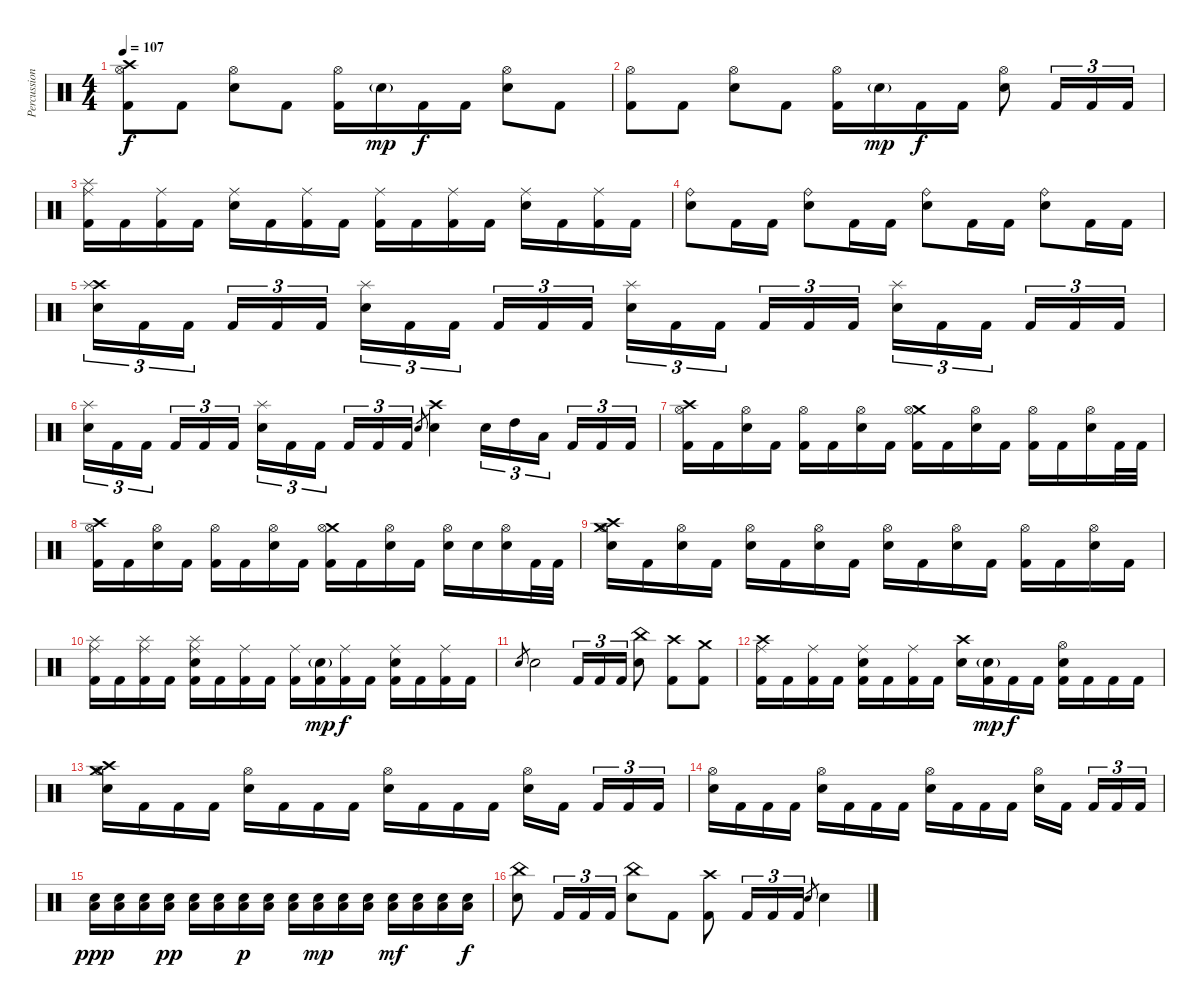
\track ("Percussion" "Percussion") {instrument percussion}
\staff {score}
\articulation defaults
\ts (4 4)
\tempo 107
\clef neutral
\ks c
("Crash high (hit)" "Hi-Hat (open)" "Kick (hit) 2").8{dy f} "Kick (hit) 2".8 ("Hi-Hat (open)" "Electric Snare (hit)").8 "Kick (hit) 2".8 ("Hi-Hat (open)" "Kick (hit) 2").16 "Electric Snare (hit)"{g}.16{dy mp} "Kick (hit) 2".16{dy f} "Kick (hit) 2".16 ("Hi-Hat (open)" "Electric Snare (hit)").8 "Kick (hit) 2".8 |
("Hi-Hat (open)" "Kick (hit) 2").8 "Kick (hit) 2".8 ("Hi-Hat (open)" "Electric Snare (hit)").8 "Kick (hit) 2".8 ("Hi-Hat (open)" "Kick (hit) 2").16 "Electric Snare (hit)"{g}.16{dy mp} "Kick (hit) 2".16{dy f} "Kick (hit) 2".16 ("Hi-Hat (open)" "Electric Snare (hit)").8 "Kick (hit) 2".16{tu (3 2)} "Kick (hit) 2".16{tu (3 2)} "Kick (hit) 2".16{tu (3 2)} |
("Splash (hit)" "Ride (middle)" "Kick (hit) 2").16 "Kick (hit) 2".16 ("Ride (middle)" "Kick (hit) 2").16 "Kick (hit) 2".16 ("Ride (middle)" "Electric Snare (hit)").16 "Kick (hit) 2".16 ("Ride (middle)" "Kick (hit) 2").16 "Kick (hit) 2".16 ("Ride (middle)" "Kick (hit) 2").16 "Kick (hit) 2".16 ("Ride (middle)" "Kick (hit) 2").16 "Kick (hit) 2".16 ("Ride (middle)" "Electric Snare (hit)").16 "Kick (hit) 2".16 ("Ride (middle)" "Kick (hit) 2").16 "Kick (hit) 2".16 |
("Ride (bell)" "Electric Snare (hit)").8 "Kick (hit) 2".16 "Kick (hit) 2".16 ("Ride (bell)" "Electric Snare (hit)").8 "Kick (hit) 2".16 "Kick (hit) 2".16 ("Ride (bell)" "Electric Snare (hit)").8 "Kick (hit) 2".16 "Kick (hit) 2".16 ("Ride (bell)" "Electric Snare (hit)").8 "Kick (hit) 2".16 "Kick (hit) 2".16 |
("Crash high (hit)" "Splash (hit)" "Electric Snare (hit)").16{tu (3 2)} "Kick (hit) 2".16{tu (3 2)} "Kick (hit) 2".16{tu (3 2)} "Kick (hit) 2".16{tu (3 2)} "Kick (hit) 2".16{tu (3 2)} "Kick (hit) 2".16{tu (3 2)} ("Splash (hit)" "Electric Snare (hit)").16{tu (3 2)} "Kick (hit) 2".16{tu (3 2)} "Kick (hit) 2".16{tu (3 2)} "Kick (hit) 2".16{tu (3 2)} "Kick (hit) 2".16{tu (3 2)} "Kick (hit) 2".16{tu (3 2)} ("Splash (hit)" "Electric Snare (hit)").16{tu (3 2)} "Kick (hit) 2".16{tu (3 2)} "Kick (hit) 2".16{tu (3 2)} "Kick (hit) 2".16{tu (3 2)} "Kick (hit) 2".16{tu (3 2)} "Kick (hit) 2".16{tu (3 2)} ("Splash (hit)" "Electric Snare (hit)").16{tu (3 2)} "Kick (hit) 2".16{tu (3 2)} "Kick (hit) 2".16{tu (3 2)} "Kick (hit) 2".16{tu (3 2)} "Kick (hit) 2".16{tu (3 2)} "Kick (hit) 2".16{tu (3 2)} |
("Splash (hit)" "Electric Snare (hit)").16{tu (3 2)} "Kick (hit) 2".16{tu (3 2)} "Kick (hit) 2".16{tu (3 2)} "Kick (hit) 2".16{tu (3 2)} "Kick (hit) 2".16{tu (3 2)} "Kick (hit) 2".16{tu (3 2)} ("Splash (hit)" "Electric Snare (hit)").16{tu (3 2)} "Kick (hit) 2".16{tu (3 2)} "Kick (hit) 2".16{tu (3 2)} "Kick (hit) 2".16{tu (3 2)} "Kick (hit) 2".16{tu (3 2)} "Kick (hit) 2".16{tu (3 2)} "Electric Snare (hit)".8{gr} ("Crash high (hit)" "Electric Snare (hit)").4 "Electric Snare (hit)".16{tu (3 2)} "High Tom (hit)".16{tu (3 2)} "Low Tom (hit)".16{tu (3 2)} "Kick (hit) 2".16{tu (3 2)} "Kick (hit) 2".16{tu (3 2)} "Kick (hit) 2".16{tu (3 2)} |
("Crash high (hit)" "Hi-Hat (open)" "Kick (hit) 2").16 "Kick (hit) 2".16 ("Hi-Hat (open)" "Electric Snare (hit)").16 "Kick (hit) 2".16 ("Hi-Hat (open)" "Kick (hit) 2").16 "Kick (hit) 2".16 ("Hi-Hat (open)" "Electric Snare (hit)").16 "Kick (hit) 2".16 ("Crash medium (hit)" "Hi-Hat (open)" "Kick (hit) 2").16 "Kick (hit) 2".16 ("Hi-Hat (open)" "Electric Snare (hit)").16 "Kick (hit) 2".16 ("Hi-Hat (open)" "Kick (hit) 2").16 "Kick (hit) 2".16 ("Hi-Hat (open)" "Electric Snare (hit)").16 "Kick (hit) 2".32 "Kick (hit) 2".32 |
("Crash high (hit)" "Hi-Hat (open)" "Kick (hit) 2").16 "Kick (hit) 2".16 ("Hi-Hat (open)" "Electric Snare (hit)").16 "Kick (hit) 2".16 ("Hi-Hat (open)" "Kick (hit) 2").16 "Kick (hit) 2".16 ("Hi-Hat (open)" "Electric Snare (hit)").16 "Kick (hit) 2".16 ("Crash medium (hit)" "Hi-Hat (open)" "Kick (hit) 2").16 "Kick (hit) 2".16 ("Hi-Hat (open)" "Electric Snare (hit)").16 "Kick (hit) 2".16 ("Hi-Hat (open)" "Electric Snare (hit)").16 "Electric Snare (hit)".16 ("Hi-Hat (open)" "Electric Snare (hit)").16 "Kick (hit) 2".32 "Kick (hit) 2".32 |
("Crash medium (hit)" "Crash high (hit)" "Hi-Hat (open)" "Electric Snare (hit)").16 "Kick (hit) 2".16 ("Hi-Hat (open)" "Electric Snare (hit)").16 "Kick (hit) 2".16 ("Hi-Hat (open)" "Electric Snare (hit)").16 "Kick (hit) 2".16 ("Hi-Hat (open)" "Electric Snare (hit)").16 "Kick (hit) 2".16 ("Hi-Hat (open)" "Electric Snare (hit)").16 "Kick (hit) 2".16 ("Hi-Hat (open)" "Electric Snare (hit)").16 "Kick (hit) 2".16 ("Hi-Hat (open)" "Kick (hit) 2").16 "Kick (hit) 2".16 ("Hi-Hat (open)" "Electric Snare (hit)").16 "Kick (hit) 2".16 |
("Ride (middle)" "Splash (hit)" "Kick (hit) 2").16 "Kick (hit) 2".16 ("Ride (middle)" "Splash (hit)" "Kick (hit) 2").16 "Kick (hit) 2".16 ("Ride (middle)" "Splash (hit)" "Kick (hit) 2" "Electric Snare (hit)").16 "Kick (hit) 2".16 ("Ride (middle)" "Kick (hit) 2").16 "Kick (hit) 2".16 ("Ride (middle)" "Kick (hit) 2").16 ("Kick (hit) 2" "Electric Snare (hit)"{g}).16{dy mp} ("Ride (middle)" "Kick (hit) 2").16{dy f} "Kick (hit) 2".16 ("Ride (middle)" "Kick (hit) 2" "Electric Snare (hit)").16 "Kick (hit) 2".16 ("Ride (middle)" "Kick (hit) 2").16 "Kick (hit) 2".16 |
"Electric Snare (hit)".8{gr} "Electric Snare (hit)".2 "Kick (hit) 2".16{tu (3 2)} "Kick (hit) 2".16{tu (3 2)} "Kick (hit) 2".16{tu (3 2)} ("China (hit)" "Electric Snare (hit)").8 ("Crash high (hit)" "Kick (hit) 2").8 ("Crash medium (hit)" "Kick (hit) 2").8 |
("Ride (middle)" "Crash high (hit)" "Kick (hit) 2").16 "Kick (hit) 2".16 ("Ride (middle)" "Kick (hit) 2").16 "Kick (hit) 2".16 ("Ride (middle)" "Kick (hit) 2" "Electric Snare (hit)").16 "Kick (hit) 2".16 ("Ride (middle)" "Kick (hit) 2").16 "Kick (hit) 2".16 ("Crash high (hit)" "Electric Snare (hit)").16 ("Kick (hit) 2" "Electric Snare (hit)"{g}).16{dy mp} "Kick (hit) 2".16{dy f} "Kick (hit) 2".16 ("Hi-Hat (open)" "Kick (hit) 2" "Electric Snare (hit)").16 "Kick (hit) 2".16 "Kick (hit) 2".16 "Kick (hit) 2".16 |
("Crash high (hit)" "Crash medium (hit)" "Hi-Hat (open)" "Electric Snare (hit)").16 "Kick (hit) 2".16 "Kick (hit) 2".16 "Kick (hit) 2".16 ("Hi-Hat (open)" "Electric Snare (hit)").16 "Kick (hit) 2".16 "Kick (hit) 2".16 "Kick (hit) 2".16 ("Hi-Hat (open)" "Electric Snare (hit)").16 "Kick (hit) 2".16 "Kick (hit) 2".16 "Kick (hit) 2".16 ("Hi-Hat (open)" "Electric Snare (hit)").16 "Kick (hit) 2".16 "Kick (hit) 2".16{tu (3 2)} "Kick (hit) 2".16{tu (3 2)} "Kick (hit) 2".16{tu (3 2)} |
("Hi-Hat (open)" "Electric Snare (hit)").16 "Kick (hit) 2".16 "Kick (hit) 2".16 "Kick (hit) 2".16 ("Hi-Hat (open)" "Electric Snare (hit)").16 "Kick (hit) 2".16 "Kick (hit) 2".16 "Kick (hit) 2".16 ("Hi-Hat (open)" "Electric Snare (hit)").16 "Kick (hit) 2".16 "Kick (hit) 2".16 "Kick (hit) 2".16 ("Hi-Hat (open)" "Electric Snare (hit)").16 "Kick (hit) 2".16 "Kick (hit) 2".16{tu (3 2)} "Kick (hit) 2".16{tu (3 2)} "Kick (hit) 2".16{tu (3 2)} |
("Low Floor Tom (hit)" "Electric Snare (hit)").16{dy ppp} ("Low Floor Tom (hit)" "Electric Snare (hit)").16 ("Low Floor Tom (hit)" "Electric Snare (hit)").16 ("Low Floor Tom (hit)" "Electric Snare (hit)").16{dy pp} ("Low Floor Tom (hit)" "Electric Snare (hit)").16 ("Low Floor Tom (hit)" "Electric Snare (hit)").16 ("Low Floor Tom (hit)" "Electric Snare (hit)").16{dy p} ("Low Floor Tom (hit)" "Electric Snare (hit)").16 ("Low Floor Tom (hit)" "Electric Snare (hit)").16 ("Low Floor Tom (hit)" "Electric Snare (hit)").16{dy mp} ("Low Floor Tom (hit)" "Electric Snare (hit)").16 ("Low Floor Tom (hit)" "Electric Snare (hit)").16 ("Low Floor Tom (hit)" "Electric Snare (hit)").16{dy mf} ("Low Floor Tom (hit)" "Electric Snare (hit)").16 ("Low Floor Tom (hit)" "Electric Snare (hit)").16 ("Low Floor Tom (hit)" "Electric Snare (hit)").16{dy f} |
("China (hit)" "Electric Snare (hit)").8 "Kick (hit) 2".16{tu (3 2)} "Kick (hit) 2".16{tu (3 2)} "Kick (hit) 2".16{tu (3 2)} ("China (hit)" "Electric Snare (hit)").8 "Kick (hit) 2".8 ("Crash high (hit)" "Kick (hit) 2").8 "Kick (hit) 2".16{tu (3 2)} "Kick (hit) 2".16{tu (3 2)} "Kick (hit) 2".16{tu (3 2)} "Electric Snare (hit)".8{gr} "Electric Snare (hit)".4
